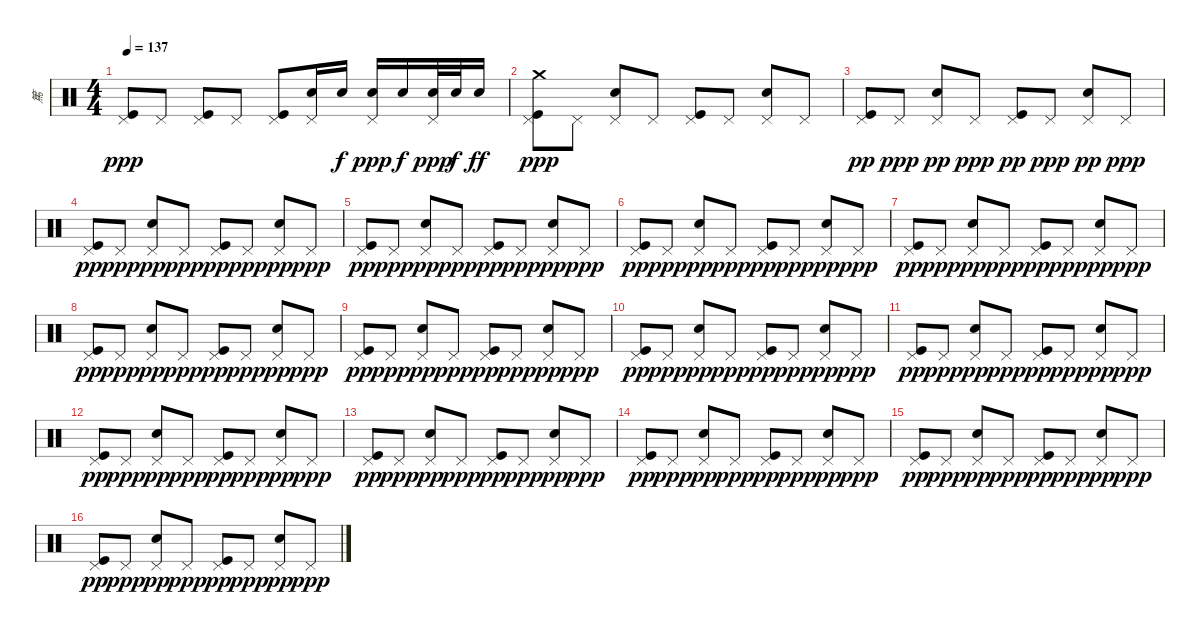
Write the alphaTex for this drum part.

\track ("篤" "篤") {instrument percussion}
\staff {score}
\articulation defaults
\ts (4 4)
\tempo 137
\clef neutral
\ks c
("Kick (hit)" "Pedal Hi-Hat (hit)").8{dy ppp} "Pedal Hi-Hat (hit)".8 ("Kick (hit)" "Pedal Hi-Hat (hit)").8 "Pedal Hi-Hat (hit)".8 ("Kick (hit)" "Pedal Hi-Hat (hit)").8 ("Snare (hit) 2" "Pedal Hi-Hat (hit)").16 "Snare (hit) 2".16{dy f} ("Snare (hit) 2" "Pedal Hi-Hat (hit)").16{dy ppp} "Snare (hit) 2".16{dy f} ("Snare (hit) 2" "Pedal Hi-Hat (hit)").32{dy ppp} "Snare (hit) 2".32{dy f} "Snare (hit) 2".16{dy ff} |
("Crash medium (hit)" "Kick (hit)" "Pedal Hi-Hat (hit)").8{dy ppp} "Pedal Hi-Hat (hit)".8 ("Snare (hit) 2" "Pedal Hi-Hat (hit)").8 "Pedal Hi-Hat (hit)".8 ("Kick (hit)" "Pedal Hi-Hat (hit)").8 "Pedal Hi-Hat (hit)".8 ("Snare (hit) 2" "Pedal Hi-Hat (hit)").8 "Pedal Hi-Hat (hit)".8 |
("Kick (hit)" "Pedal Hi-Hat (hit)").8{dy pp} "Pedal Hi-Hat (hit)".8{dy ppp} ("Snare (hit) 2" "Pedal Hi-Hat (hit)").8{dy pp} "Pedal Hi-Hat (hit)".8{dy ppp} ("Kick (hit)" "Pedal Hi-Hat (hit)").8{dy pp} "Pedal Hi-Hat (hit)".8{dy ppp} ("Snare (hit) 2" "Pedal Hi-Hat (hit)").8{dy pp} "Pedal Hi-Hat (hit)".8{dy ppp} |
("Kick (hit)" "Pedal Hi-Hat (hit)").8{dy pp} "Pedal Hi-Hat (hit)".8{dy ppp} ("Snare (hit) 2" "Pedal Hi-Hat (hit)").8{dy pp} "Pedal Hi-Hat (hit)".8{dy ppp} ("Kick (hit)" "Pedal Hi-Hat (hit)").8{dy pp} "Pedal Hi-Hat (hit)".8{dy ppp} ("Snare (hit) 2" "Pedal Hi-Hat (hit)").8{dy pp} "Pedal Hi-Hat (hit)".8{dy ppp} |
("Kick (hit)" "Pedal Hi-Hat (hit)").8{dy pp} "Pedal Hi-Hat (hit)".8{dy ppp} ("Snare (hit) 2" "Pedal Hi-Hat (hit)").8{dy pp} "Pedal Hi-Hat (hit)".8{dy ppp} ("Kick (hit)" "Pedal Hi-Hat (hit)").8{dy pp} "Pedal Hi-Hat (hit)".8{dy ppp} ("Snare (hit) 2" "Pedal Hi-Hat (hit)").8{dy pp} "Pedal Hi-Hat (hit)".8{dy ppp} |
("Kick (hit)" "Pedal Hi-Hat (hit)").8{dy pp} "Pedal Hi-Hat (hit)".8{dy ppp} ("Snare (hit) 2" "Pedal Hi-Hat (hit)").8{dy pp} "Pedal Hi-Hat (hit)".8{dy ppp} ("Kick (hit)" "Pedal Hi-Hat (hit)").8{dy pp} "Pedal Hi-Hat (hit)".8{dy ppp} ("Snare (hit) 2" "Pedal Hi-Hat (hit)").8{dy pp} "Pedal Hi-Hat (hit)".8{dy ppp} |
("Kick (hit)" "Pedal Hi-Hat (hit)").8{dy pp} "Pedal Hi-Hat (hit)".8{dy ppp} ("Snare (hit) 2" "Pedal Hi-Hat (hit)").8{dy pp} "Pedal Hi-Hat (hit)".8{dy ppp} ("Kick (hit)" "Pedal Hi-Hat (hit)").8{dy pp} "Pedal Hi-Hat (hit)".8{dy ppp} ("Snare (hit) 2" "Pedal Hi-Hat (hit)").8{dy pp} "Pedal Hi-Hat (hit)".8{dy ppp} |
("Kick (hit)" "Pedal Hi-Hat (hit)").8{dy pp} "Pedal Hi-Hat (hit)".8{dy ppp} ("Snare (hit) 2" "Pedal Hi-Hat (hit)").8{dy pp} "Pedal Hi-Hat (hit)".8{dy ppp} ("Kick (hit)" "Pedal Hi-Hat (hit)").8{dy pp} "Pedal Hi-Hat (hit)".8{dy ppp} ("Snare (hit) 2" "Pedal Hi-Hat (hit)").8{dy pp} "Pedal Hi-Hat (hit)".8{dy ppp} |
("Kick (hit)" "Pedal Hi-Hat (hit)").8{dy pp} "Pedal Hi-Hat (hit)".8{dy ppp} ("Snare (hit) 2" "Pedal Hi-Hat (hit)").8{dy pp} "Pedal Hi-Hat (hit)".8{dy ppp} ("Kick (hit)" "Pedal Hi-Hat (hit)").8{dy pp} "Pedal Hi-Hat (hit)".8{dy ppp} ("Snare (hit) 2" "Pedal Hi-Hat (hit)").8{dy pp} "Pedal Hi-Hat (hit)".8{dy ppp} |
("Kick (hit)" "Pedal Hi-Hat (hit)").8{dy pp} "Pedal Hi-Hat (hit)".8{dy ppp} ("Snare (hit) 2" "Pedal Hi-Hat (hit)").8{dy pp} "Pedal Hi-Hat (hit)".8{dy ppp} ("Kick (hit)" "Pedal Hi-Hat (hit)").8{dy pp} "Pedal Hi-Hat (hit)".8{dy ppp} ("Snare (hit) 2" "Pedal Hi-Hat (hit)").8{dy pp} "Pedal Hi-Hat (hit)".8{dy ppp} |
("Kick (hit)" "Pedal Hi-Hat (hit)").8{dy pp} "Pedal Hi-Hat (hit)".8{dy ppp} ("Snare (hit) 2" "Pedal Hi-Hat (hit)").8{dy pp} "Pedal Hi-Hat (hit)".8{dy ppp} ("Kick (hit)" "Pedal Hi-Hat (hit)").8{dy pp} "Pedal Hi-Hat (hit)".8{dy ppp} ("Snare (hit) 2" "Pedal Hi-Hat (hit)").8{dy pp} "Pedal Hi-Hat (hit)".8{dy ppp} |
("Kick (hit)" "Pedal Hi-Hat (hit)").8{dy pp} "Pedal Hi-Hat (hit)".8{dy ppp} ("Snare (hit) 2" "Pedal Hi-Hat (hit)").8{dy pp} "Pedal Hi-Hat (hit)".8{dy ppp} ("Kick (hit)" "Pedal Hi-Hat (hit)").8{dy pp} "Pedal Hi-Hat (hit)".8{dy ppp} ("Snare (hit) 2" "Pedal Hi-Hat (hit)").8{dy pp} "Pedal Hi-Hat (hit)".8{dy ppp} |
("Kick (hit)" "Pedal Hi-Hat (hit)").8{dy pp} "Pedal Hi-Hat (hit)".8{dy ppp} ("Snare (hit) 2" "Pedal Hi-Hat (hit)").8{dy pp} "Pedal Hi-Hat (hit)".8{dy ppp} ("Kick (hit)" "Pedal Hi-Hat (hit)").8{dy pp} "Pedal Hi-Hat (hit)".8{dy ppp} ("Snare (hit) 2" "Pedal Hi-Hat (hit)").8{dy pp} "Pedal Hi-Hat (hit)".8{dy ppp} |
("Kick (hit)" "Pedal Hi-Hat (hit)").8{dy pp} "Pedal Hi-Hat (hit)".8{dy ppp} ("Snare (hit) 2" "Pedal Hi-Hat (hit)").8{dy pp} "Pedal Hi-Hat (hit)".8{dy ppp} ("Kick (hit)" "Pedal Hi-Hat (hit)").8{dy pp} "Pedal Hi-Hat (hit)".8{dy ppp} ("Snare (hit) 2" "Pedal Hi-Hat (hit)").8{dy pp} "Pedal Hi-Hat (hit)".8{dy ppp} |
("Kick (hit)" "Pedal Hi-Hat (hit)").8{dy pp} "Pedal Hi-Hat (hit)".8{dy ppp} ("Snare (hit) 2" "Pedal Hi-Hat (hit)").8{dy pp} "Pedal Hi-Hat (hit)".8{dy ppp} ("Kick (hit)" "Pedal Hi-Hat (hit)").8{dy pp} "Pedal Hi-Hat (hit)".8{dy ppp} ("Snare (hit) 2" "Pedal Hi-Hat (hit)").8{dy pp} "Pedal Hi-Hat (hit)".8{dy ppp} |
("Kick (hit)" "Pedal Hi-Hat (hit)").8{dy pp} "Pedal Hi-Hat (hit)".8{dy ppp} ("Snare (hit) 2" "Pedal Hi-Hat (hit)").8{dy pp} "Pedal Hi-Hat (hit)".8{dy ppp} ("Kick (hit)" "Pedal Hi-Hat (hit)").8{dy pp} "Pedal Hi-Hat (hit)".8{dy ppp} ("Snare (hit) 2" "Pedal Hi-Hat (hit)").8{dy pp} "Pedal Hi-Hat (hit)".8{dy ppp}
